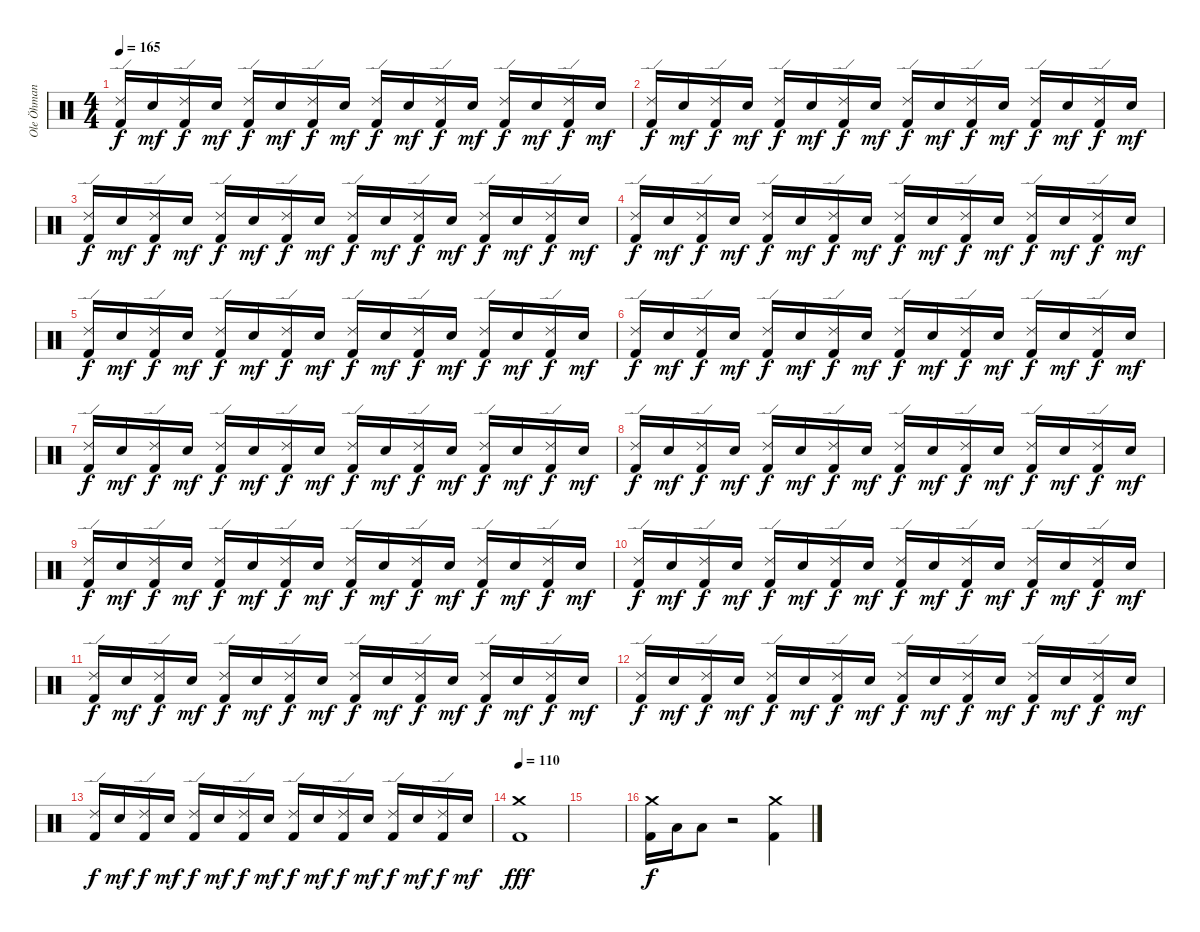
\track ("Ole Öhman" "Ole Öhman") {instrument percussion}
\staff {score}
\articulation defaults
\ts (4 4)
\tempo 165
\clef neutral
\ks c
("Ride (edge) 2" "Kick (hit) 2").16{dy f} "Electric Snare (hit)".16{dy mf} ("Ride (edge) 2" "Kick (hit) 2").16{dy f} "Electric Snare (hit)".16{dy mf} ("Ride (edge) 2" "Kick (hit) 2").16{dy f} "Electric Snare (hit)".16{dy mf} ("Ride (edge) 2" "Kick (hit) 2").16{dy f} "Electric Snare (hit)".16{dy mf} ("Ride (edge) 2" "Kick (hit) 2").16{dy f} "Electric Snare (hit)".16{dy mf} ("Ride (edge) 2" "Kick (hit) 2").16{dy f} "Electric Snare (hit)".16{dy mf} ("Ride (edge) 2" "Kick (hit) 2").16{dy f} "Electric Snare (hit)".16{dy mf} ("Ride (edge) 2" "Kick (hit) 2").16{dy f} "Electric Snare (hit)".16{dy mf} |
("Ride (edge) 2" "Kick (hit) 2").16{dy f} "Electric Snare (hit)".16{dy mf} ("Ride (edge) 2" "Kick (hit) 2").16{dy f} "Electric Snare (hit)".16{dy mf} ("Ride (edge) 2" "Kick (hit) 2").16{dy f} "Electric Snare (hit)".16{dy mf} ("Ride (edge) 2" "Kick (hit) 2").16{dy f} "Electric Snare (hit)".16{dy mf} ("Ride (edge) 2" "Kick (hit) 2").16{dy f} "Electric Snare (hit)".16{dy mf} ("Ride (edge) 2" "Kick (hit) 2").16{dy f} "Electric Snare (hit)".16{dy mf} ("Ride (edge) 2" "Kick (hit) 2").16{dy f} "Electric Snare (hit)".16{dy mf} ("Ride (edge) 2" "Kick (hit) 2").16{dy f} "Electric Snare (hit)".16{dy mf} |
("Ride (edge) 2" "Kick (hit) 2").16{dy f} "Electric Snare (hit)".16{dy mf} ("Ride (edge) 2" "Kick (hit) 2").16{dy f} "Electric Snare (hit)".16{dy mf} ("Ride (edge) 2" "Kick (hit) 2").16{dy f} "Electric Snare (hit)".16{dy mf} ("Ride (edge) 2" "Kick (hit) 2").16{dy f} "Electric Snare (hit)".16{dy mf} ("Ride (edge) 2" "Kick (hit) 2").16{dy f} "Electric Snare (hit)".16{dy mf} ("Ride (edge) 2" "Kick (hit) 2").16{dy f} "Electric Snare (hit)".16{dy mf} ("Ride (edge) 2" "Kick (hit) 2").16{dy f} "Electric Snare (hit)".16{dy mf} ("Ride (edge) 2" "Kick (hit) 2").16{dy f} "Electric Snare (hit)".16{dy mf} |
("Ride (edge) 2" "Kick (hit) 2").16{dy f} "Electric Snare (hit)".16{dy mf} ("Ride (edge) 2" "Kick (hit) 2").16{dy f} "Electric Snare (hit)".16{dy mf} ("Ride (edge) 2" "Kick (hit) 2").16{dy f} "Electric Snare (hit)".16{dy mf} ("Ride (edge) 2" "Kick (hit) 2").16{dy f} "Electric Snare (hit)".16{dy mf} ("Ride (edge) 2" "Kick (hit) 2").16{dy f} "Electric Snare (hit)".16{dy mf} ("Ride (edge) 2" "Kick (hit) 2").16{dy f} "Electric Snare (hit)".16{dy mf} ("Ride (edge) 2" "Kick (hit) 2").16{dy f} "Electric Snare (hit)".16{dy mf} ("Ride (edge) 2" "Kick (hit) 2").16{dy f} "Electric Snare (hit)".16{dy mf} |
("Ride (edge) 2" "Kick (hit) 2").16{dy f} "Electric Snare (hit)".16{dy mf} ("Ride (edge) 2" "Kick (hit) 2").16{dy f} "Electric Snare (hit)".16{dy mf} ("Ride (edge) 2" "Kick (hit) 2").16{dy f} "Electric Snare (hit)".16{dy mf} ("Ride (edge) 2" "Kick (hit) 2").16{dy f} "Electric Snare (hit)".16{dy mf} ("Ride (edge) 2" "Kick (hit) 2").16{dy f} "Electric Snare (hit)".16{dy mf} ("Ride (edge) 2" "Kick (hit) 2").16{dy f} "Electric Snare (hit)".16{dy mf} ("Ride (edge) 2" "Kick (hit) 2").16{dy f} "Electric Snare (hit)".16{dy mf} ("Ride (edge) 2" "Kick (hit) 2").16{dy f} "Electric Snare (hit)".16{dy mf} |
("Ride (edge) 2" "Kick (hit) 2").16{dy f} "Electric Snare (hit)".16{dy mf} ("Ride (edge) 2" "Kick (hit) 2").16{dy f} "Electric Snare (hit)".16{dy mf} ("Ride (edge) 2" "Kick (hit) 2").16{dy f} "Electric Snare (hit)".16{dy mf} ("Ride (edge) 2" "Kick (hit) 2").16{dy f} "Electric Snare (hit)".16{dy mf} ("Ride (edge) 2" "Kick (hit) 2").16{dy f} "Electric Snare (hit)".16{dy mf} ("Ride (edge) 2" "Kick (hit) 2").16{dy f} "Electric Snare (hit)".16{dy mf} ("Ride (edge) 2" "Kick (hit) 2").16{dy f} "Electric Snare (hit)".16{dy mf} ("Ride (edge) 2" "Kick (hit) 2").16{dy f} "Electric Snare (hit)".16{dy mf} |
("Ride (edge) 2" "Kick (hit) 2").16{dy f} "Electric Snare (hit)".16{dy mf} ("Ride (edge) 2" "Kick (hit) 2").16{dy f} "Electric Snare (hit)".16{dy mf} ("Ride (edge) 2" "Kick (hit) 2").16{dy f} "Electric Snare (hit)".16{dy mf} ("Ride (edge) 2" "Kick (hit) 2").16{dy f} "Electric Snare (hit)".16{dy mf} ("Ride (edge) 2" "Kick (hit) 2").16{dy f} "Electric Snare (hit)".16{dy mf} ("Ride (edge) 2" "Kick (hit) 2").16{dy f} "Electric Snare (hit)".16{dy mf} ("Ride (edge) 2" "Kick (hit) 2").16{dy f} "Electric Snare (hit)".16{dy mf} ("Ride (edge) 2" "Kick (hit) 2").16{dy f} "Electric Snare (hit)".16{dy mf} |
("Ride (edge) 2" "Kick (hit) 2").16{dy f} "Electric Snare (hit)".16{dy mf} ("Ride (edge) 2" "Kick (hit) 2").16{dy f} "Electric Snare (hit)".16{dy mf} ("Ride (edge) 2" "Kick (hit) 2").16{dy f} "Electric Snare (hit)".16{dy mf} ("Ride (edge) 2" "Kick (hit) 2").16{dy f} "Electric Snare (hit)".16{dy mf} ("Ride (edge) 2" "Kick (hit) 2").16{dy f} "Electric Snare (hit)".16{dy mf} ("Ride (edge) 2" "Kick (hit) 2").16{dy f} "Electric Snare (hit)".16{dy mf} ("Ride (edge) 2" "Kick (hit) 2").16{dy f} "Electric Snare (hit)".16{dy mf} ("Ride (edge) 2" "Kick (hit) 2").16{dy f} "Electric Snare (hit)".16{dy mf} |
("Ride (edge) 2" "Kick (hit) 2").16{dy f} "Electric Snare (hit)".16{dy mf} ("Ride (edge) 2" "Kick (hit) 2").16{dy f} "Electric Snare (hit)".16{dy mf} ("Ride (edge) 2" "Kick (hit) 2").16{dy f} "Electric Snare (hit)".16{dy mf} ("Ride (edge) 2" "Kick (hit) 2").16{dy f} "Electric Snare (hit)".16{dy mf} ("Ride (edge) 2" "Kick (hit) 2").16{dy f} "Electric Snare (hit)".16{dy mf} ("Ride (edge) 2" "Kick (hit) 2").16{dy f} "Electric Snare (hit)".16{dy mf} ("Ride (edge) 2" "Kick (hit) 2").16{dy f} "Electric Snare (hit)".16{dy mf} ("Ride (edge) 2" "Kick (hit) 2").16{dy f} "Electric Snare (hit)".16{dy mf} |
("Ride (edge) 2" "Kick (hit) 2").16{dy f} "Electric Snare (hit)".16{dy mf} ("Ride (edge) 2" "Kick (hit) 2").16{dy f} "Electric Snare (hit)".16{dy mf} ("Ride (edge) 2" "Kick (hit) 2").16{dy f} "Electric Snare (hit)".16{dy mf} ("Ride (edge) 2" "Kick (hit) 2").16{dy f} "Electric Snare (hit)".16{dy mf} ("Ride (edge) 2" "Kick (hit) 2").16{dy f} "Electric Snare (hit)".16{dy mf} ("Ride (edge) 2" "Kick (hit) 2").16{dy f} "Electric Snare (hit)".16{dy mf} ("Ride (edge) 2" "Kick (hit) 2").16{dy f} "Electric Snare (hit)".16{dy mf} ("Ride (edge) 2" "Kick (hit) 2").16{dy f} "Electric Snare (hit)".16{dy mf} |
("Ride (edge) 2" "Kick (hit) 2").16{dy f} "Electric Snare (hit)".16{dy mf} ("Ride (edge) 2" "Kick (hit) 2").16{dy f} "Electric Snare (hit)".16{dy mf} ("Ride (edge) 2" "Kick (hit) 2").16{dy f} "Electric Snare (hit)".16{dy mf} ("Ride (edge) 2" "Kick (hit) 2").16{dy f} "Electric Snare (hit)".16{dy mf} ("Ride (edge) 2" "Kick (hit) 2").16{dy f} "Electric Snare (hit)".16{dy mf} ("Ride (edge) 2" "Kick (hit) 2").16{dy f} "Electric Snare (hit)".16{dy mf} ("Ride (edge) 2" "Kick (hit) 2").16{dy f} "Electric Snare (hit)".16{dy mf} ("Ride (edge) 2" "Kick (hit) 2").16{dy f} "Electric Snare (hit)".16{dy mf} |
("Ride (edge) 2" "Kick (hit) 2").16{dy f} "Electric Snare (hit)".16{dy mf} ("Ride (edge) 2" "Kick (hit) 2").16{dy f} "Electric Snare (hit)".16{dy mf} ("Ride (edge) 2" "Kick (hit) 2").16{dy f} "Electric Snare (hit)".16{dy mf} ("Ride (edge) 2" "Kick (hit) 2").16{dy f} "Electric Snare (hit)".16{dy mf} ("Ride (edge) 2" "Kick (hit) 2").16{dy f} "Electric Snare (hit)".16{dy mf} ("Ride (edge) 2" "Kick (hit) 2").16{dy f} "Electric Snare (hit)".16{dy mf} ("Ride (edge) 2" "Kick (hit) 2").16{dy f} "Electric Snare (hit)".16{dy mf} ("Ride (edge) 2" "Kick (hit) 2").16{dy f} "Electric Snare (hit)".16{dy mf} |
("Ride (edge) 2" "Kick (hit) 2").16{dy f} "Electric Snare (hit)".16{dy mf} ("Ride (edge) 2" "Kick (hit) 2").16{dy f} "Electric Snare (hit)".16{dy mf} ("Ride (edge) 2" "Kick (hit) 2").16{dy f} "Electric Snare (hit)".16{dy mf} ("Ride (edge) 2" "Kick (hit) 2").16{dy f} "Electric Snare (hit)".16{dy mf} ("Ride (edge) 2" "Kick (hit) 2").16{dy f} "Electric Snare (hit)".16{dy mf} ("Ride (edge) 2" "Kick (hit) 2").16{dy f} "Electric Snare (hit)".16{dy mf} ("Ride (edge) 2" "Kick (hit) 2").16{dy f} "Electric Snare (hit)".16{dy mf} ("Ride (edge) 2" "Kick (hit) 2").16{dy f} "Electric Snare (hit)".16{dy mf} |
\tempo 110
("Crash medium (hit)" "Kick (hit) 2").1{dy fff} |
|
("Crash medium (hit)" "Kick (hit) 2").16{dy f} "Low Tom (hit)".16 "Low Tom (hit)".8 r.2 ("Crash medium (hit)" "Kick (hit) 2").4
